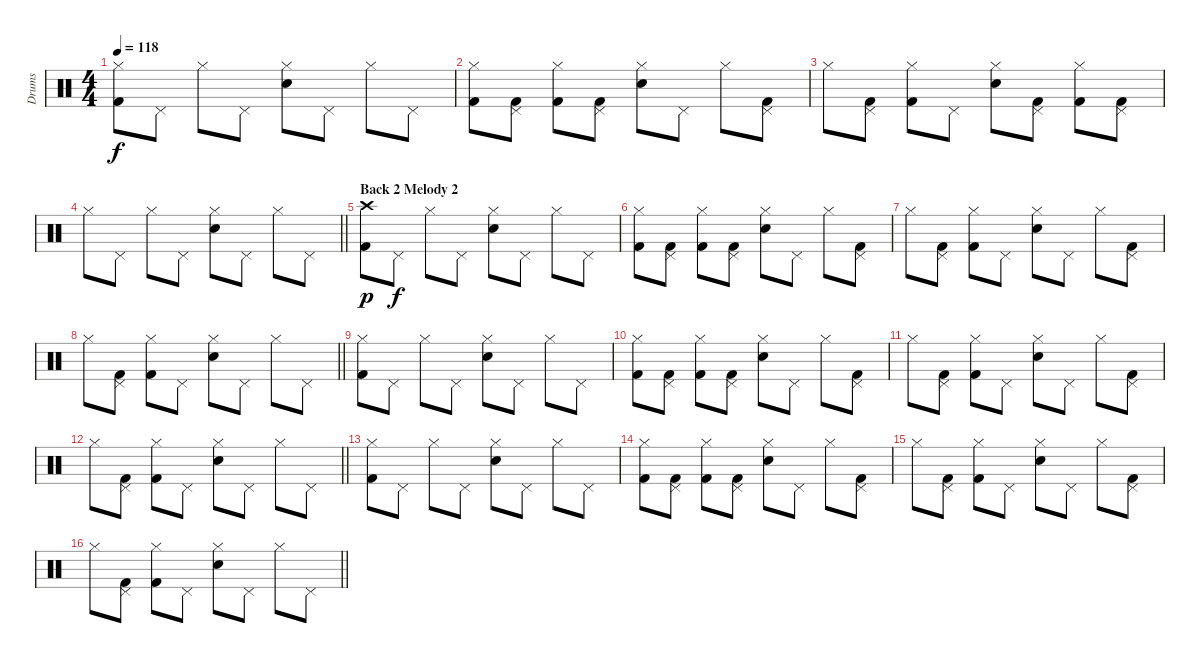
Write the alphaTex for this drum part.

\track ("Drums" "Drums") {instrument percussion}
\staff {score}
\articulation defaults
\ts (4 4)
\tempo 118
\clef neutral
\ks c
("Hi-Hat (closed)" "Kick (hit) 2").8{dy f} "Pedal Hi-Hat (hit)".8 "Hi-Hat (closed)".8 "Pedal Hi-Hat (hit)".8 ("Hi-Hat (closed)" "Electric Snare (hit)").8 "Pedal Hi-Hat (hit)".8 "Hi-Hat (closed)".8 "Pedal Hi-Hat (hit)".8 |
("Hi-Hat (closed)" "Kick (hit) 2").8 ("Pedal Hi-Hat (hit)" "Kick (hit) 2").8 ("Hi-Hat (closed)" "Kick (hit) 2").8 ("Pedal Hi-Hat (hit)" "Kick (hit) 2").8 ("Hi-Hat (closed)" "Electric Snare (hit)").8 "Pedal Hi-Hat (hit)".8 "Hi-Hat (closed)".8 ("Pedal Hi-Hat (hit)" "Kick (hit) 2").8 |
"Hi-Hat (closed)".8 ("Pedal Hi-Hat (hit)" "Kick (hit) 2").8 ("Hi-Hat (closed)" "Kick (hit) 2").8 "Pedal Hi-Hat (hit)".8 ("Hi-Hat (closed)" "Electric Snare (hit)").8 ("Pedal Hi-Hat (hit)" "Kick (hit) 2").8 ("Hi-Hat (closed)" "Kick (hit) 2").8 ("Pedal Hi-Hat (hit)" "Kick (hit) 2").8 |
\barLineRight lightlight "Hi-Hat (closed)".8 "Pedal Hi-Hat (hit)".8 "Hi-Hat (closed)".8 "Pedal Hi-Hat (hit)".8
("Hi-Hat (closed)" "Electric Snare (hit)").8 "Pedal Hi-Hat (hit)".8 "Hi-Hat (closed)".8 "Pedal Hi-Hat (hit)".8 |
\section ("" "Back 2 Melody 2")
("Crash high (hit)" "Kick (hit) 2").8{dy p} "Pedal Hi-Hat (hit)".8{dy f} "Hi-Hat (closed)".8 "Pedal Hi-Hat (hit)".8 ("Hi-Hat (closed)" "Electric Snare (hit)").8 "Pedal Hi-Hat (hit)".8 "Hi-Hat (closed)".8 "Pedal Hi-Hat (hit)".8 |
("Hi-Hat (closed)" "Kick (hit) 2").8 ("Pedal Hi-Hat (hit)" "Kick (hit) 2").8 ("Hi-Hat (closed)" "Kick (hit) 2").8 ("Pedal Hi-Hat (hit)" "Kick (hit) 2").8 ("Hi-Hat (closed)" "Electric Snare (hit)").8 "Pedal Hi-Hat (hit)".8 "Hi-Hat (closed)".8 ("Pedal Hi-Hat (hit)" "Kick (hit) 2").8 |
"Hi-Hat (closed)".8 ("Pedal Hi-Hat (hit)" "Kick (hit) 2").8 ("Hi-Hat (closed)" "Kick (hit) 2").8 "Pedal Hi-Hat (hit)".8 ("Hi-Hat (closed)" "Electric Snare (hit)").8 "Pedal Hi-Hat (hit)".8 "Hi-Hat (closed)".8 ("Pedal Hi-Hat (hit)" "Kick (hit) 2").8 |
\barLineRight lightlight "Hi-Hat (closed)".8
("Pedal Hi-Hat (hit)" "Kick (hit) 2").8 ("Hi-Hat (closed)" "Kick (hit) 2").8 "Pedal Hi-Hat (hit)".8 ("Hi-Hat (closed)" "Electric Snare (hit)").8 "Pedal Hi-Hat (hit)".8 "Hi-Hat (closed)".8 "Pedal Hi-Hat (hit)".8 |
("Hi-Hat (closed)" "Kick (hit) 2").8 "Pedal Hi-Hat (hit)".8 "Hi-Hat (closed)".8 "Pedal Hi-Hat (hit)".8 ("Hi-Hat (closed)" "Electric Snare (hit)").8 "Pedal Hi-Hat (hit)".8 "Hi-Hat (closed)".8 "Pedal Hi-Hat (hit)".8 |
("Hi-Hat (closed)" "Kick (hit) 2").8 ("Pedal Hi-Hat (hit)" "Kick (hit) 2").8 ("Hi-Hat (closed)" "Kick (hit) 2").8 ("Pedal Hi-Hat (hit)" "Kick (hit) 2").8 ("Hi-Hat (closed)" "Electric Snare (hit)").8 "Pedal Hi-Hat (hit)".8 "Hi-Hat (closed)".8 ("Pedal Hi-Hat (hit)" "Kick (hit) 2").8 |
"Hi-Hat (closed)".8 ("Pedal Hi-Hat (hit)" "Kick (hit) 2").8 ("Hi-Hat (closed)" "Kick (hit) 2").8 "Pedal Hi-Hat (hit)".8 ("Hi-Hat (closed)" "Electric Snare (hit)").8 "Pedal Hi-Hat (hit)".8 "Hi-Hat (closed)".8 ("Pedal Hi-Hat (hit)" "Kick (hit) 2").8 |
\barLineRight lightlight "Hi-Hat (closed)".8
("Pedal Hi-Hat (hit)" "Kick (hit) 2").8 ("Hi-Hat (closed)" "Kick (hit) 2").8 "Pedal Hi-Hat (hit)".8 ("Hi-Hat (closed)" "Electric Snare (hit)").8 "Pedal Hi-Hat (hit)".8 "Hi-Hat (closed)".8 "Pedal Hi-Hat (hit)".8 |
("Hi-Hat (closed)" "Kick (hit) 2").8 "Pedal Hi-Hat (hit)".8 "Hi-Hat (closed)".8 "Pedal Hi-Hat (hit)".8 ("Hi-Hat (closed)" "Electric Snare (hit)").8 "Pedal Hi-Hat (hit)".8 "Hi-Hat (closed)".8 "Pedal Hi-Hat (hit)".8 |
("Hi-Hat (closed)" "Kick (hit) 2").8 ("Pedal Hi-Hat (hit)" "Kick (hit) 2").8 ("Hi-Hat (closed)" "Kick (hit) 2").8 ("Pedal Hi-Hat (hit)" "Kick (hit) 2").8 ("Hi-Hat (closed)" "Electric Snare (hit)").8 "Pedal Hi-Hat (hit)".8 "Hi-Hat (closed)".8 ("Pedal Hi-Hat (hit)" "Kick (hit) 2").8 |
"Hi-Hat (closed)".8 ("Pedal Hi-Hat (hit)" "Kick (hit) 2").8 ("Hi-Hat (closed)" "Kick (hit) 2").8 "Pedal Hi-Hat (hit)".8 ("Hi-Hat (closed)" "Electric Snare (hit)").8 "Pedal Hi-Hat (hit)".8 "Hi-Hat (closed)".8 ("Pedal Hi-Hat (hit)" "Kick (hit) 2").8 |
\barLineRight lightlight "Hi-Hat (closed)".8
("Pedal Hi-Hat (hit)" "Kick (hit) 2").8 ("Hi-Hat (closed)" "Kick (hit) 2").8 "Pedal Hi-Hat (hit)".8 ("Hi-Hat (closed)" "Electric Snare (hit)").8 "Pedal Hi-Hat (hit)".8 "Hi-Hat (closed)".8 "Pedal Hi-Hat (hit)".8
